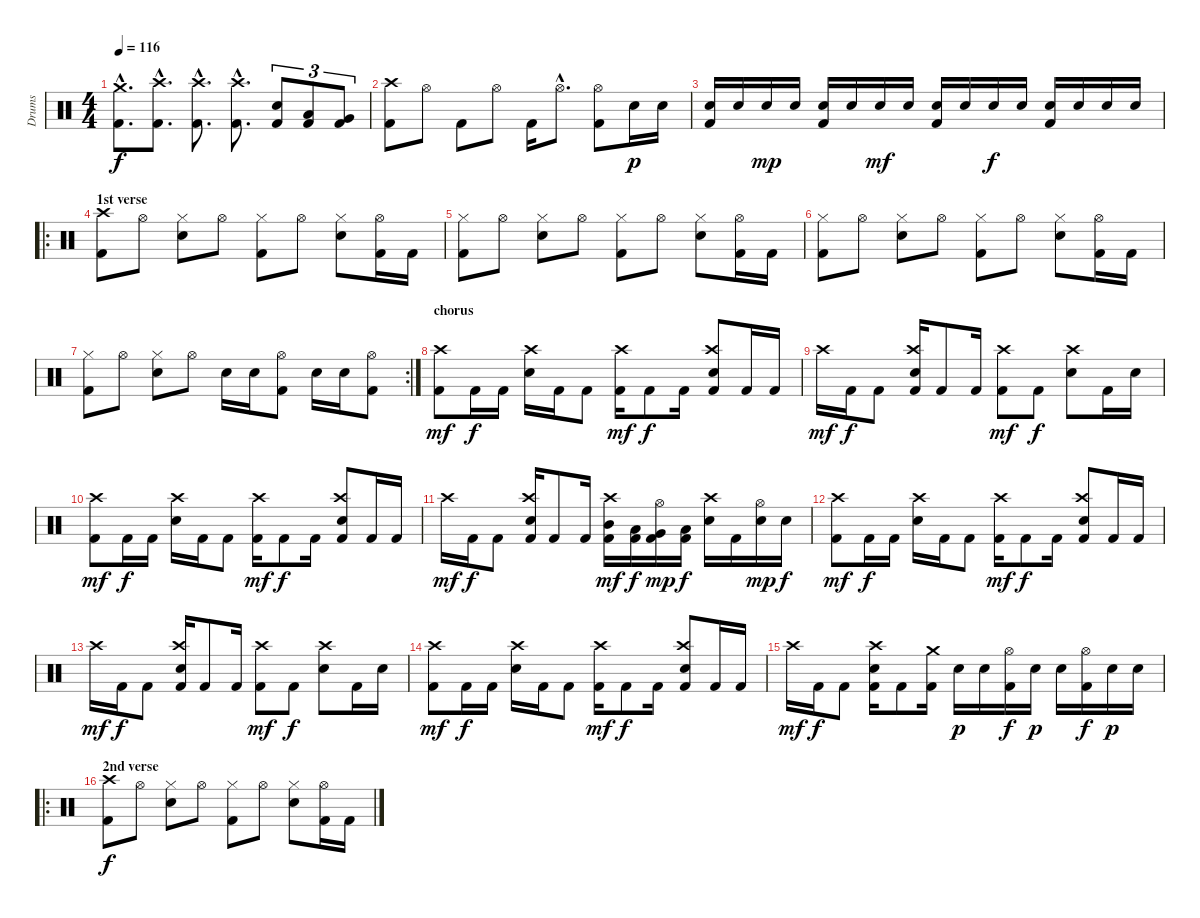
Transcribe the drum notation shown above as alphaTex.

\track ("Drums" "Drums") {instrument percussion}
\staff {score}
\articulation defaults
\ts (4 4)
\tempo 116
\clef neutral
\ks c
("Kick (hit) 2"{hac} "Crash medium (hit)"{hac}).8{d dy f} ("Kick (hit) 2"{hac} "Crash high (hit)"{hac}).8{d} ("Kick (hit) 2"{hac} "Crash high (hit)"{hac}).8{d} ("Kick (hit) 2"{hac} "Crash high (hit)"{hac}).8{d} ("Kick (hit) 2" "Electric Snare (hit)").8{tu (3 2)} ("Kick (hit) 2" "Low Tom (hit)").8{tu (3 2)} ("Kick (hit) 2" "Very Low Tom (hit)").8{tu (3 2)} |
("Kick (hit) 2" "Crash high (hit)").8 "Hi-Hat (open)".8 "Kick (hit) 2".8 "Hi-Hat (open)".8 "Kick (hit) 2".16 "Hi-Hat (open)"{hac}.8{d} ("Kick (hit) 2" "Hi-Hat (open)").8 "Electric Snare (hit)".16{dy p} "Electric Snare (hit)".16 |
("Kick (hit) 2" "Electric Snare (hit)").16 "Electric Snare (hit)".16 "Electric Snare (hit)".16{dy mp} "Electric Snare (hit)".16 ("Kick (hit) 2" "Electric Snare (hit)").16 "Electric Snare (hit)".16 "Electric Snare (hit)".16{dy mf} "Electric Snare (hit)".16 ("Kick (hit) 2" "Electric Snare (hit)").16 "Electric Snare (hit)".16 "Electric Snare (hit)".16{dy f} "Electric Snare (hit)".16 ("Kick (hit) 2" "Electric Snare (hit)").16 "Electric Snare (hit)".16 "Electric Snare (hit)".16 "Electric Snare (hit)".16 |
\ro
\section ("" "1st verse")
("Kick (hit) 2" "Crash high (hit)").8 "Hi-Hat (open)".8 ("Hi-Hat (closed)" "Electric Snare (hit)").8 "Hi-Hat (open)".8 ("Kick (hit) 2" "Hi-Hat (closed)").8 "Hi-Hat (open)".8 ("Hi-Hat (closed)" "Electric Snare (hit)").8 ("Kick (hit) 2" "Hi-Hat (open)").16 "Kick (hit) 2".16 |
("Kick (hit) 2" "Hi-Hat (closed)").8 "Hi-Hat (open)".8 ("Hi-Hat (closed)" "Electric Snare (hit)").8 "Hi-Hat (open)".8 ("Kick (hit) 2" "Hi-Hat (closed)").8 "Hi-Hat (open)".8 ("Hi-Hat (closed)" "Electric Snare (hit)").8 ("Kick (hit) 2" "Hi-Hat (open)").16 "Kick (hit) 2".16 |
("Kick (hit) 2" "Hi-Hat (closed)").8 "Hi-Hat (open)".8 ("Hi-Hat (closed)" "Electric Snare (hit)").8 "Hi-Hat (open)".8 ("Kick (hit) 2" "Hi-Hat (closed)").8 "Hi-Hat (open)".8 ("Hi-Hat (closed)" "Electric Snare (hit)").8 ("Kick (hit) 2" "Hi-Hat (open)").16 "Kick (hit) 2".16 |
\rc 2
("Kick (hit) 2" "Hi-Hat (closed)").8 "Hi-Hat (open)".8 ("Hi-Hat (closed)" "Electric Snare (hit)").8 "Hi-Hat (open)".8 "Electric Snare (hit)".16 "Electric Snare (hit)".16 ("Kick (hit) 2" "Hi-Hat (open)").8 "Electric Snare (hit)".16 "Electric Snare (hit)".16 ("Kick (hit) 2" "Hi-Hat (open)").8 |
\section ("" "chorus")
("Kick (hit) 2" "Crash high (hit)").8{dy mf} "Kick (hit) 2".16{dy f} "Kick (hit) 2".16 ("Crash high (hit)" "Electric Snare (hit)").16 "Kick (hit) 2".16 "Kick (hit) 2".8 ("Kick (hit) 2" "Crash high (hit)").16{dy mf} "Kick (hit) 2".8{dy f} "Kick (hit) 2".16 ("Kick (hit) 2" "Crash high (hit)" "Electric Snare (hit)").8 "Kick (hit) 2".16 "Kick (hit) 2".16 |
"Crash high (hit)".16{dy mf} "Kick (hit) 2".16{dy f} "Kick (hit) 2".8 ("Kick (hit) 2" "Crash high (hit)" "Electric Snare (hit)").16 "Kick (hit) 2".8 "Kick (hit) 2".16 ("Kick (hit) 2" "Crash high (hit)").8{dy mf} "Kick (hit) 2".8{dy f} ("Crash high (hit)" "Electric Snare (hit)").8 "Kick (hit) 2".16 "Electric Snare (hit)".16 |
("Kick (hit) 2" "Crash high (hit)").8{dy mf} "Kick (hit) 2".16{dy f} "Kick (hit) 2".16 ("Crash high (hit)" "Electric Snare (hit)").16 "Kick (hit) 2".16 "Kick (hit) 2".8 ("Kick (hit) 2" "Crash high (hit)").16{dy mf} "Kick (hit) 2".8{dy f} "Kick (hit) 2".16 ("Kick (hit) 2" "Crash high (hit)" "Electric Snare (hit)").8 "Kick (hit) 2".16 "Kick (hit) 2".16 |
"Crash high (hit)".16{dy mf} "Kick (hit) 2".16{dy f} "Kick (hit) 2".8 ("Kick (hit) 2" "Crash high (hit)" "Electric Snare (hit)").16 "Kick (hit) 2".8 "Kick (hit) 2".16 ("Kick (hit) 2" "Crash high (hit)" "Mid Tom (hit)").16{dy mf} ("Kick (hit) 2" "Low Tom (hit)").16{dy f} ("Kick (hit) 2" "Very Low Tom (hit)" "Hi-Hat (open)").16{dy mp} ("Kick (hit) 2" "Low Floor Tom (hit)").16{dy f} ("Crash high (hit)" "Electric Snare (hit)").16 "Kick (hit) 2".16 ("Hi-Hat (open)" "Electric Snare (hit)").16{dy mp} "Electric Snare (hit)".16{dy f} |
("Kick (hit) 2" "Crash high (hit)").8{dy mf} "Kick (hit) 2".16{dy f} "Kick (hit) 2".16 ("Crash high (hit)" "Electric Snare (hit)").16 "Kick (hit) 2".16 "Kick (hit) 2".8 ("Kick (hit) 2" "Crash high (hit)").16{dy mf} "Kick (hit) 2".8{dy f} "Kick (hit) 2".16 ("Kick (hit) 2" "Crash high (hit)" "Electric Snare (hit)").8 "Kick (hit) 2".16 "Kick (hit) 2".16 |
"Crash high (hit)".16{dy mf} "Kick (hit) 2".16{dy f} "Kick (hit) 2".8 ("Kick (hit) 2" "Crash high (hit)" "Electric Snare (hit)").16 "Kick (hit) 2".8 "Kick (hit) 2".16 ("Kick (hit) 2" "Crash high (hit)").8{dy mf} "Kick (hit) 2".8{dy f} ("Crash high (hit)" "Electric Snare (hit)").8 "Kick (hit) 2".16 "Electric Snare (hit)".16 |
("Kick (hit) 2" "Crash high (hit)").8{dy mf} "Kick (hit) 2".16{dy f} "Kick (hit) 2".16 ("Crash high (hit)" "Electric Snare (hit)").16 "Kick (hit) 2".16 "Kick (hit) 2".8 ("Kick (hit) 2" "Crash high (hit)").16{dy mf} "Kick (hit) 2".8{dy f} "Kick (hit) 2".16 ("Kick (hit) 2" "Crash high (hit)" "Electric Snare (hit)").8 "Kick (hit) 2".16 "Kick (hit) 2".16 |
"Crash high (hit)".16{dy mf} "Kick (hit) 2".16{dy f} "Kick (hit) 2".8 ("Kick (hit) 2" "Crash high (hit)" "Electric Snare (hit)").16 "Kick (hit) 2".8 ("Kick (hit) 2" "Crash medium (hit)").16 "Electric Snare (hit)".16{dy p} "Electric Snare (hit)".16 ("Kick (hit) 2" "Hi-Hat (open)").16{dy f} "Electric Snare (hit)".16{dy p} "Electric Snare (hit)".16 ("Kick (hit) 2" "Hi-Hat (open)").16{dy f} "Electric Snare (hit)".16{dy p} "Electric Snare (hit)".16 |
\ro
\section ("" "2nd verse")
("Kick (hit) 2" "Crash high (hit)").8{dy f} "Hi-Hat (open)".8 ("Hi-Hat (closed)" "Electric Snare (hit)").8 "Hi-Hat (open)".8 ("Kick (hit) 2" "Hi-Hat (closed)").8 "Hi-Hat (open)".8 ("Hi-Hat (closed)" "Electric Snare (hit)").8 ("Kick (hit) 2" "Hi-Hat (open)").16 "Kick (hit) 2".16
